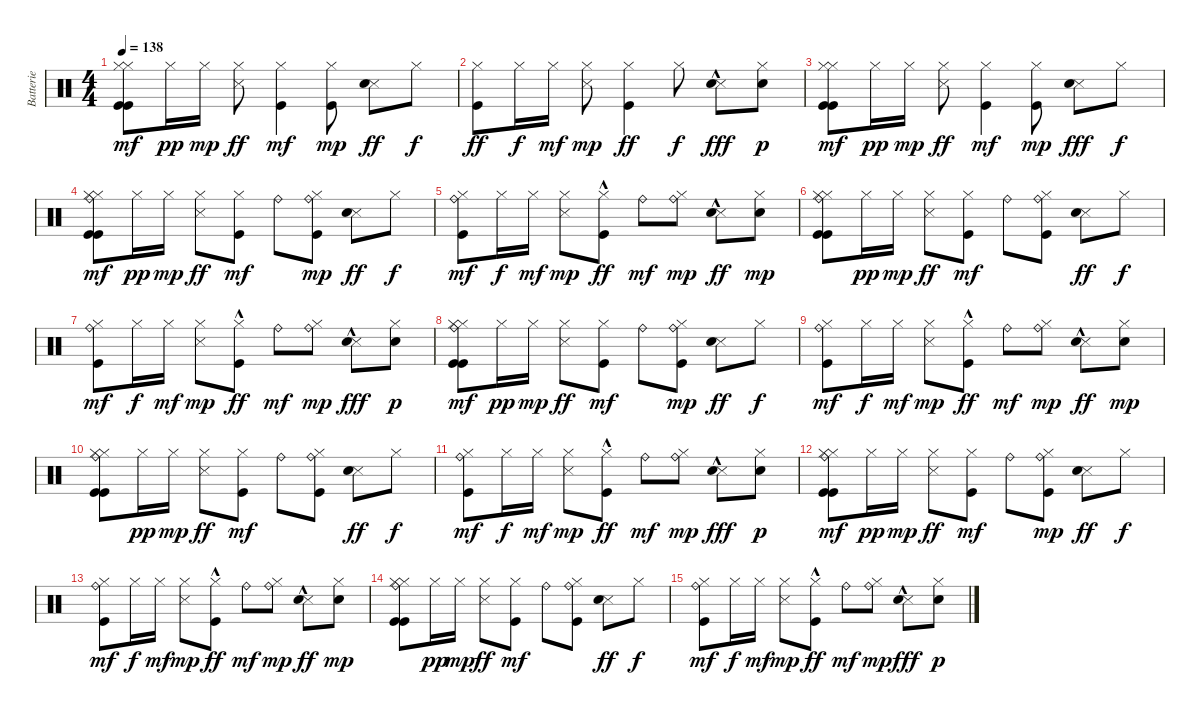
\track ("Batterie" "Batterie") {instrument percussion}
\staff {score}
\articulation defaults
\ts (4 4)
\tempo 138
\clef neutral
\ks c
("Kick (hit)" "Kick (hit)" "Hi-Hat (closed)" "Hi-Hat (closed)").8{dy mf} "Hi-Hat (closed)".16{dy pp} "Hi-Hat (closed)".16{dy mp} ("Snare (side stick) 3" "Hi-Hat (closed)").8{dy ff} ("Kick (hit)" "Hi-Hat (closed)").4{dy mf} ("Kick (hit)" "Hi-Hat (closed)").8{dy mp} ("Snare (side stick) 3" "Snare (hit) 2").8{dy ff} "Hi-Hat (closed)".8{dy f} |
("Kick (hit)" "Hi-Hat (closed)").8{dy ff} "Hi-Hat (closed)".16{dy f} "Hi-Hat (closed)".16{dy mf} ("Snare (side stick) 3" "Hi-Hat (closed)").8{dy mp} ("Kick (hit)" "Hi-Hat (closed)").4{dy ff} "Hi-Hat (closed)".8{dy f} ("Snare (side stick) 3"{hac} "Snare (hit) 2").8{dy fff} ("Hi-Hat (closed)" "Snare (hit) 2").8{dy p} |
("Kick (hit)" "Kick (hit)" "Hi-Hat (closed)" "Hi-Hat (closed)").8{dy mf} "Hi-Hat (closed)".16{dy pp} "Hi-Hat (closed)".16{dy mp} ("Snare (side stick) 3" "Hi-Hat (closed)").8{dy ff} ("Kick (hit)" "Hi-Hat (closed)").4{dy mf} ("Kick (hit)" "Hi-Hat (closed)").8{dy mp} ("Snare (side stick) 3" "Snare (hit) 2").8{dy fff} "Hi-Hat (closed)".8{dy f} |
("Kick (hit)" "Kick (hit)" "Hi-Hat (closed)" "Hi-Hat (closed)" "Ride (bell)").8{dy mf} "Hi-Hat (closed)".16{dy pp} "Hi-Hat (closed)".16{dy mp} ("Snare (side stick) 3" "Hi-Hat (closed)").8{dy ff} ("Kick (hit)" "Hi-Hat (closed)").8{dy mf} "Ride (bell)".8 ("Kick (hit)" "Hi-Hat (closed)" "Ride (bell)").8{dy mp} ("Snare (side stick) 3" "Snare (hit) 2").8{dy ff} "Hi-Hat (closed)".8{dy f} |
("Kick (hit)" "Hi-Hat (closed)" "Ride (bell)").8{dy mf} "Hi-Hat (closed)".16{dy f} "Hi-Hat (closed)".16{dy mf} ("Snare (side stick) 3" "Hi-Hat (closed)").8{dy mp} ("Kick (hit)"{hac} "Hi-Hat (closed)").8{dy ff} "Ride (bell)".8{dy mf} ("Hi-Hat (closed)" "Ride (bell)").8{dy mp} ("Snare (side stick) 3"{hac} "Snare (hit) 2").8{dy ff} ("Hi-Hat (closed)" "Snare (hit) 2").8{dy mp} |
("Kick (hit)" "Kick (hit)" "Hi-Hat (closed)" "Hi-Hat (closed)" "Ride (bell)").8 "Hi-Hat (closed)".16{dy pp} "Hi-Hat (closed)".16{dy mp} ("Snare (side stick) 3" "Hi-Hat (closed)").8{dy ff} ("Kick (hit)" "Hi-Hat (closed)").8{dy mf} "Ride (bell)".8 ("Kick (hit)" "Hi-Hat (closed)" "Ride (bell)").8 ("Snare (side stick) 3" "Snare (hit) 2").8{dy ff} "Hi-Hat (closed)".8{dy f} |
("Kick (hit)" "Hi-Hat (closed)" "Ride (bell)").8{dy mf} "Hi-Hat (closed)".16{dy f} "Hi-Hat (closed)".16{dy mf} ("Snare (side stick) 3" "Hi-Hat (closed)").8{dy mp} ("Kick (hit)"{hac} "Hi-Hat (closed)").8{dy ff} "Ride (bell)".8{dy mf} ("Hi-Hat (closed)" "Ride (bell)").8{dy mp} ("Snare (side stick) 3"{hac} "Snare (hit) 2").8{dy fff} ("Hi-Hat (closed)" "Snare (hit) 2").8{dy p} |
("Kick (hit)" "Kick (hit)" "Hi-Hat (closed)" "Hi-Hat (closed)" "Ride (bell)").8{dy mf} "Hi-Hat (closed)".16{dy pp} "Hi-Hat (closed)".16{dy mp} ("Snare (side stick) 3" "Hi-Hat (closed)").8{dy ff} ("Kick (hit)" "Hi-Hat (closed)").8{dy mf} "Ride (bell)".8 ("Kick (hit)" "Hi-Hat (closed)" "Ride (bell)").8{dy mp} ("Snare (side stick) 3" "Snare (hit) 2").8{dy ff} "Hi-Hat (closed)".8{dy f} |
("Kick (hit)" "Hi-Hat (closed)" "Ride (bell)").8{dy mf} "Hi-Hat (closed)".16{dy f} "Hi-Hat (closed)".16{dy mf} ("Snare (side stick) 3" "Hi-Hat (closed)").8{dy mp} ("Kick (hit)"{hac} "Hi-Hat (closed)").8{dy ff} "Ride (bell)".8{dy mf} ("Hi-Hat (closed)" "Ride (bell)").8{dy mp} ("Snare (side stick) 3"{hac} "Snare (hit) 2").8{dy ff} ("Hi-Hat (closed)" "Snare (hit) 2").8{dy mp} |
("Kick (hit)" "Kick (hit)" "Hi-Hat (closed)" "Hi-Hat (closed)" "Ride (bell)").8 "Hi-Hat (closed)".16{dy pp} "Hi-Hat (closed)".16{dy mp} ("Snare (side stick) 3" "Hi-Hat (closed)").8{dy ff} ("Kick (hit)" "Hi-Hat (closed)").8{dy mf} "Ride (bell)".8 ("Kick (hit)" "Hi-Hat (closed)" "Ride (bell)").8 ("Snare (side stick) 3" "Snare (hit) 2").8{dy ff} "Hi-Hat (closed)".8{dy f} |
("Kick (hit)" "Hi-Hat (closed)" "Ride (bell)").8{dy mf} "Hi-Hat (closed)".16{dy f} "Hi-Hat (closed)".16{dy mf} ("Snare (side stick) 3" "Hi-Hat (closed)").8{dy mp} ("Kick (hit)"{hac} "Hi-Hat (closed)").8{dy ff} "Ride (bell)".8{dy mf} ("Hi-Hat (closed)" "Ride (bell)").8{dy mp} ("Snare (side stick) 3"{hac} "Snare (hit) 2").8{dy fff} ("Hi-Hat (closed)" "Snare (hit) 2").8{dy p} |
("Kick (hit)" "Kick (hit)" "Hi-Hat (closed)" "Hi-Hat (closed)" "Ride (bell)").8{dy mf volume 16} "Hi-Hat (closed)".16{dy pp volume 15} "Hi-Hat (closed)".16{dy mp volume 15} ("Snare (side stick) 3" "Hi-Hat (closed)").8{dy ff volume 15} ("Kick (hit)" "Hi-Hat (closed)").8{dy mf volume 14} "Ride (bell)".8{volume 14} ("Kick (hit)" "Hi-Hat (closed)" "Ride (bell)").8{dy mp volume 13} ("Snare (side stick) 3" "Snare (hit) 2").8{dy ff volume 13} "Hi-Hat (closed)".8{dy f volume 12} |
("Kick (hit)" "Hi-Hat (closed)" "Ride (bell)").8{dy mf volume 12} "Hi-Hat (closed)".16{dy f volume 11} "Hi-Hat (closed)".16{dy mf volume 11} ("Snare (side stick) 3" "Hi-Hat (closed)").8{dy mp volume 11} ("Kick (hit)"{hac} "Hi-Hat (closed)").8{dy ff volume 10} "Ride (bell)".8{dy mf volume 10} ("Hi-Hat (closed)" "Ride (bell)").8{dy mp volume 9} ("Snare (side stick) 3"{hac} "Snare (hit) 2").8{dy ff volume 9} ("Hi-Hat (closed)" "Snare (hit) 2").8{dy mp volume 8} |
("Kick (hit)" "Kick (hit)" "Hi-Hat (closed)" "Hi-Hat (closed)" "Ride (bell)").8{volume 8} "Hi-Hat (closed)".16{dy pp volume 7} "Hi-Hat (closed)".16{dy mp volume 7} ("Snare (side stick) 3" "Hi-Hat (closed)").8{dy ff volume 7} ("Kick (hit)" "Hi-Hat (closed)").8{dy mf volume 6} "Ride (bell)".8{volume 6} ("Kick (hit)" "Hi-Hat (closed)" "Ride (bell)").8{volume 5} ("Snare (side stick) 3" "Snare (hit) 2").8{dy ff volume 5} "Hi-Hat (closed)".8{dy f volume 4} |
("Kick (hit)" "Hi-Hat (closed)" "Ride (bell)").8{dy mf volume 4} "Hi-Hat (closed)".16{dy f volume 3} "Hi-Hat (closed)".16{dy mf volume 3} ("Snare (side stick) 3" "Hi-Hat (closed)").8{dy mp volume 3} ("Kick (hit)"{hac} "Hi-Hat (closed)").8{dy ff volume 2} "Ride (bell)".8{dy mf volume 2} ("Hi-Hat (closed)" "Ride (bell)").8{dy mp volume 1} ("Snare (side stick) 3"{hac} "Snare (hit) 2").8{dy fff volume 1} ("Hi-Hat (closed)" "Snare (hit) 2").8{dy p volume 0}
